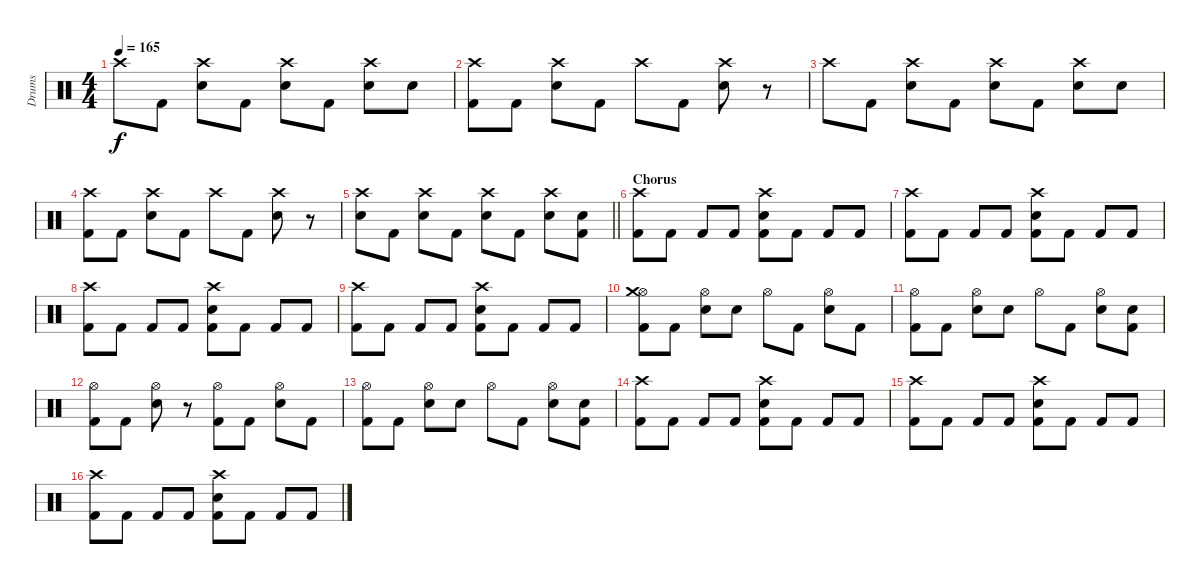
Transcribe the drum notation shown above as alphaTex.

\track ("Drums" "Drums") {instrument percussion}
\staff {score}
\articulation defaults
\ts (4 4)
\tempo 165
\clef neutral
\ks c "Crash high (hit)".8{dy f} "Kick (hit) 2".8
("Crash high (hit)" "Snare (hit) 2").8 "Kick (hit) 2".8 ("Crash high (hit)" "Snare (hit) 2").8 "Kick (hit) 2".8 ("Crash high (hit)" "Snare (hit) 2").8 "Snare (hit) 2".8 |
("Crash high (hit)" "Kick (hit) 2").8 "Kick (hit) 2".8 ("Crash high (hit)" "Snare (hit) 2").8 "Kick (hit) 2".8 "Crash high (hit)".8 "Kick (hit) 2".8 ("Crash high (hit)" "Snare (hit) 2").8 r.8 |
"Crash high (hit)".8 "Kick (hit) 2".8 ("Crash high (hit)" "Snare (hit) 2").8 "Kick (hit) 2".8 ("Crash high (hit)" "Snare (hit) 2").8 "Kick (hit) 2".8 ("Crash high (hit)" "Snare (hit) 2").8 "Snare (hit) 2".8 |
("Crash high (hit)" "Kick (hit) 2").8 "Kick (hit) 2".8 ("Crash high (hit)" "Snare (hit) 2").8 "Kick (hit) 2".8 "Crash high (hit)".8 "Kick (hit) 2".8 ("Crash high (hit)" "Snare (hit) 2").8 r.8 |
\barLineRight lightlight
("Crash high (hit)" "Snare (hit) 2").8 "Kick (hit) 2".8 ("Crash high (hit)" "Snare (hit) 2").8 "Kick (hit) 2".8 ("Crash high (hit)" "Snare (hit) 2").8 "Kick (hit) 2".8 ("Crash high (hit)" "Snare (hit) 2").8 ("Snare (hit) 2" "Kick (hit) 2").8 |
\section ("" "Chorus")
("Crash high (hit)" "Kick (hit) 2").8 "Kick (hit) 2".8 "Kick (hit) 2".8 "Kick (hit) 2".8 ("Crash high (hit)" "Snare (hit) 2" "Kick (hit) 2").8 "Kick (hit) 2".8 "Kick (hit) 2".8 "Kick (hit) 2".8 |
("Crash high (hit)" "Kick (hit) 2").8 "Kick (hit) 2".8 "Kick (hit) 2".8 "Kick (hit) 2".8 ("Crash high (hit)" "Snare (hit) 2" "Kick (hit) 2").8 "Kick (hit) 2".8 "Kick (hit) 2".8 "Kick (hit) 2".8 |
("Crash high (hit)" "Kick (hit) 2").8 "Kick (hit) 2".8 "Kick (hit) 2".8 "Kick (hit) 2".8 ("Crash high (hit)" "Snare (hit) 2" "Kick (hit) 2").8 "Kick (hit) 2".8 "Kick (hit) 2".8 "Kick (hit) 2".8 |
("Crash high (hit)" "Kick (hit) 2").8 "Kick (hit) 2".8 "Kick (hit) 2".8 "Kick (hit) 2".8 ("Crash high (hit)" "Snare (hit) 2" "Kick (hit) 2").8 "Kick (hit) 2".8 "Kick (hit) 2".8 "Kick (hit) 2".8 |
("Hi-Hat (open)" "Crash medium (hit)" "Kick (hit) 2").8 "Kick (hit) 2".8 ("Hi-Hat (open)" "Snare (hit) 2").8 "Snare (hit) 2".8 "Hi-Hat (open)".8 "Kick (hit) 2".8 ("Hi-Hat (open)" "Snare (hit) 2").8 "Kick (hit) 2".8 |
("Hi-Hat (open)" "Kick (hit) 2").8 "Kick (hit) 2".8 ("Hi-Hat (open)" "Snare (hit) 2").8 "Snare (hit) 2".8 "Hi-Hat (open)".8 "Kick (hit) 2".8 ("Hi-Hat (open)" "Snare (hit) 2").8 ("Snare (hit) 2" "Kick (hit) 2").8 |
("Hi-Hat (open)" "Kick (hit) 2").8 "Kick (hit) 2".8 ("Hi-Hat (open)" "Snare (hit) 2").8 r.8 ("Hi-Hat (open)" "Kick (hit) 2").8 "Kick (hit) 2".8 ("Hi-Hat (open)" "Snare (hit) 2").8 "Kick (hit) 2".8 |
("Hi-Hat (open)" "Kick (hit) 2").8 "Kick (hit) 2".8 ("Hi-Hat (open)" "Snare (hit) 2").8 "Snare (hit) 2".8 "Hi-Hat (open)".8 "Kick (hit) 2".8 ("Hi-Hat (open)" "Snare (hit) 2").8 ("Snare (hit) 2" "Kick (hit) 2").8 |
("Crash high (hit)" "Kick (hit) 2").8 "Kick (hit) 2".8 "Kick (hit) 2".8 "Kick (hit) 2".8 ("Crash high (hit)" "Snare (hit) 2" "Kick (hit) 2").8 "Kick (hit) 2".8 "Kick (hit) 2".8 "Kick (hit) 2".8 |
("Crash high (hit)" "Kick (hit) 2").8 "Kick (hit) 2".8 "Kick (hit) 2".8 "Kick (hit) 2".8 ("Crash high (hit)" "Snare (hit) 2" "Kick (hit) 2").8 "Kick (hit) 2".8 "Kick (hit) 2".8 "Kick (hit) 2".8 |
("Crash high (hit)" "Kick (hit) 2").8 "Kick (hit) 2".8 "Kick (hit) 2".8 "Kick (hit) 2".8 ("Crash high (hit)" "Snare (hit) 2" "Kick (hit) 2").8 "Kick (hit) 2".8 "Kick (hit) 2".8 "Kick (hit) 2".8
